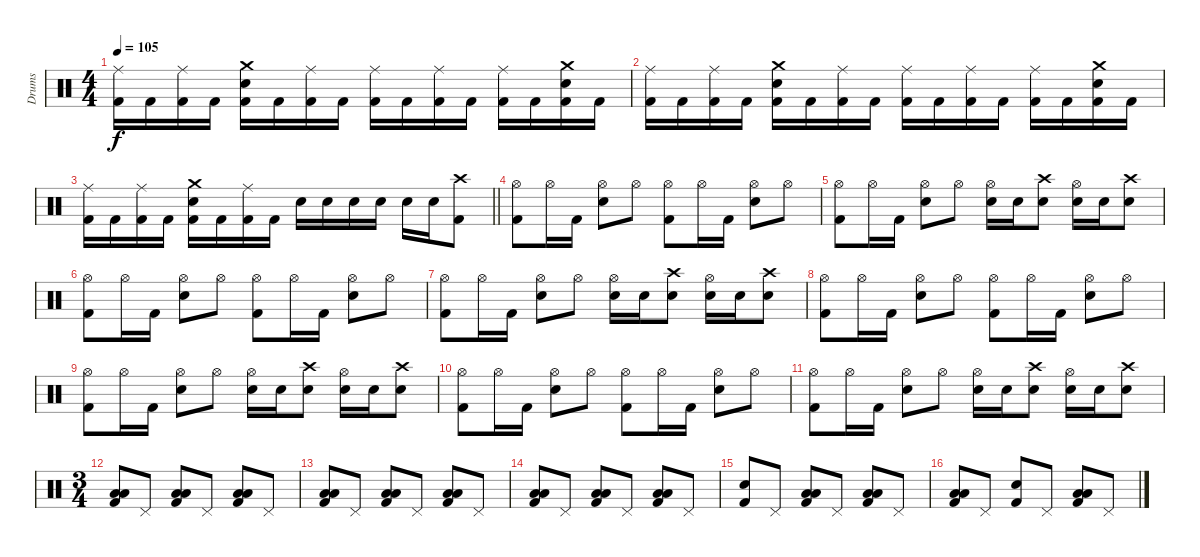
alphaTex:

\track ("Drums" "Drums") {instrument percussion}
\staff {score}
\articulation defaults
\ts (4 4)
\tempo 105
\clef neutral
\ks c
("Ride (middle)" "Kick (hit) 2").16{dy f} "Kick (hit) 2".16 ("Ride (middle)" "Kick (hit) 2").16 "Kick (hit) 2".16 ("Crash medium (hit)" "Snare (hit) 2" "Kick (hit) 2").16 "Kick (hit) 2".16 ("Ride (middle)" "Kick (hit) 2").16 "Kick (hit) 2".16 ("Ride (middle)" "Kick (hit) 2").16 "Kick (hit) 2".16 ("Ride (middle)" "Kick (hit) 2").16 "Kick (hit) 2".16 ("Ride (middle)" "Kick (hit) 2").16 "Kick (hit) 2".16 ("Crash medium (hit)" "Snare (hit) 2" "Kick (hit) 2").16 "Kick (hit) 2".16 |
("Ride (middle)" "Kick (hit) 2").16 "Kick (hit) 2".16 ("Ride (middle)" "Kick (hit) 2").16 "Kick (hit) 2".16 ("Crash medium (hit)" "Snare (hit) 2" "Kick (hit) 2").16 "Kick (hit) 2".16 ("Ride (middle)" "Kick (hit) 2").16 "Kick (hit) 2".16 ("Ride (middle)" "Kick (hit) 2").16 "Kick (hit) 2".16 ("Ride (middle)" "Kick (hit) 2").16 "Kick (hit) 2".16 ("Ride (middle)" "Kick (hit) 2").16 "Kick (hit) 2".16 ("Crash medium (hit)" "Snare (hit) 2" "Kick (hit) 2").16 "Kick (hit) 2".16 |
\barLineRight lightlight
("Ride (middle)" "Kick (hit) 2").16 "Kick (hit) 2".16 ("Ride (middle)" "Kick (hit) 2").16 "Kick (hit) 2".16 ("Crash medium (hit)" "Snare (hit) 2" "Kick (hit) 2").16 "Kick (hit) 2".16 ("Ride (middle)" "Kick (hit) 2").16 "Kick (hit) 2".16 "Snare (hit) 2".16 "Snare (hit) 2".16 "Snare (hit) 2".16 "Snare (hit) 2".16 "Snare (hit) 2".16 "Snare (hit) 2".16 ("Crash high (hit)" "Kick (hit) 2").8 |
("Hi-Hat (open)" "Kick (hit) 2").8 "Hi-Hat (open)".16 "Kick (hit) 2".16 ("Hi-Hat (open)" "Snare (hit) 2").8 "Hi-Hat (open)".8 ("Hi-Hat (open)" "Kick (hit) 2").8 "Hi-Hat (open)".16 "Kick (hit) 2".16 ("Hi-Hat (open)" "Snare (hit) 2").8 "Hi-Hat (open)".8 |
("Hi-Hat (open)" "Kick (hit) 2").8 "Hi-Hat (open)".16 "Kick (hit) 2".16 ("Hi-Hat (open)" "Snare (hit) 2").8 "Hi-Hat (open)".8 ("Hi-Hat (open)" "Snare (hit) 2").16 "Snare (hit) 2".16 ("Crash high (hit)" "Snare (hit) 2").8 ("Hi-Hat (open)" "Snare (hit) 2").16 "Snare (hit) 2".16 ("Crash high (hit)" "Snare (hit) 2").8 |
("Hi-Hat (open)" "Kick (hit) 2").8 "Hi-Hat (open)".16 "Kick (hit) 2".16 ("Hi-Hat (open)" "Snare (hit) 2").8 "Hi-Hat (open)".8 ("Hi-Hat (open)" "Kick (hit) 2").8 "Hi-Hat (open)".16 "Kick (hit) 2".16 ("Hi-Hat (open)" "Snare (hit) 2").8 "Hi-Hat (open)".8 |
("Hi-Hat (open)" "Kick (hit) 2").8 "Hi-Hat (open)".16 "Kick (hit) 2".16 ("Hi-Hat (open)" "Snare (hit) 2").8 "Hi-Hat (open)".8 ("Hi-Hat (open)" "Snare (hit) 2").16 "Snare (hit) 2".16 ("Crash high (hit)" "Snare (hit) 2").8 ("Hi-Hat (open)" "Snare (hit) 2").16 "Snare (hit) 2".16 ("Crash high (hit)" "Snare (hit) 2").8 |
("Hi-Hat (open)" "Kick (hit) 2").8 "Hi-Hat (open)".16 "Kick (hit) 2".16 ("Hi-Hat (open)" "Snare (hit) 2").8 "Hi-Hat (open)".8 ("Hi-Hat (open)" "Kick (hit) 2").8 "Hi-Hat (open)".16 "Kick (hit) 2".16 ("Hi-Hat (open)" "Snare (hit) 2").8 "Hi-Hat (open)".8 |
("Hi-Hat (open)" "Kick (hit) 2").8 "Hi-Hat (open)".16 "Kick (hit) 2".16 ("Hi-Hat (open)" "Snare (hit) 2").8 "Hi-Hat (open)".8 ("Hi-Hat (open)" "Snare (hit) 2").16 "Snare (hit) 2".16 ("Crash high (hit)" "Snare (hit) 2").8 ("Hi-Hat (open)" "Snare (hit) 2").16 "Snare (hit) 2".16 ("Crash high (hit)" "Snare (hit) 2").8 |
("Hi-Hat (open)" "Kick (hit) 2").8 "Hi-Hat (open)".16 "Kick (hit) 2".16 ("Hi-Hat (open)" "Snare (hit) 2").8 "Hi-Hat (open)".8 ("Hi-Hat (open)" "Kick (hit) 2").8 "Hi-Hat (open)".16 "Kick (hit) 2".16 ("Hi-Hat (open)" "Snare (hit) 2").8 "Hi-Hat (open)".8 |
("Hi-Hat (open)" "Kick (hit) 2").8 "Hi-Hat (open)".16 "Kick (hit) 2".16 ("Hi-Hat (open)" "Snare (hit) 2").8 "Hi-Hat (open)".8 ("Hi-Hat (open)" "Snare (hit) 2").16 "Snare (hit) 2".16 ("Crash high (hit)" "Snare (hit) 2").8 ("Hi-Hat (open)" "Snare (hit) 2").16 "Snare (hit) 2".16 ("Crash high (hit)" "Snare (hit) 2").8 |
\ts (3 4)
("Low Floor Tom (hit)" "Low Floor Tom (hit)" "Kick (hit) 2").8 "Pedal Hi-Hat (hit)".8 ("Low Floor Tom (hit)" "Low Floor Tom (hit)" "Kick (hit) 2").8 "Pedal Hi-Hat (hit)".8 ("Low Floor Tom (hit)" "Low Floor Tom (hit)" "Kick (hit) 2").8 "Pedal Hi-Hat (hit)".8 |
("Low Floor Tom (hit)" "Low Floor Tom (hit)" "Kick (hit) 2").8 "Pedal Hi-Hat (hit)".8 ("Low Floor Tom (hit)" "Low Floor Tom (hit)" "Kick (hit) 2").8 "Pedal Hi-Hat (hit)".8 ("Low Floor Tom (hit)" "Low Floor Tom (hit)" "Kick (hit) 2").8 "Pedal Hi-Hat (hit)".8 |
("Low Floor Tom (hit)" "Low Floor Tom (hit)" "Kick (hit) 2").8 "Pedal Hi-Hat (hit)".8 ("Low Floor Tom (hit)" "Low Floor Tom (hit)" "Kick (hit) 2").8 "Pedal Hi-Hat (hit)".8 ("Low Floor Tom (hit)" "Low Floor Tom (hit)" "Kick (hit) 2").8 "Pedal Hi-Hat (hit)".8 |
("Snare (hit) 2" "Kick (hit) 2").8 "Pedal Hi-Hat (hit)".8 ("Low Floor Tom (hit)" "Low Floor Tom (hit)" "Kick (hit) 2").8 "Pedal Hi-Hat (hit)".8 ("Low Floor Tom (hit)" "Low Floor Tom (hit)" "Kick (hit) 2").8 "Pedal Hi-Hat (hit)".8 |
("Low Floor Tom (hit)" "Low Floor Tom (hit)" "Kick (hit) 2").8 "Pedal Hi-Hat (hit)".8 ("Snare (hit) 2" "Kick (hit) 2").8 "Pedal Hi-Hat (hit)".8 ("Low Floor Tom (hit)" "Low Floor Tom (hit)" "Kick (hit) 2").8 "Pedal Hi-Hat (hit)".8
